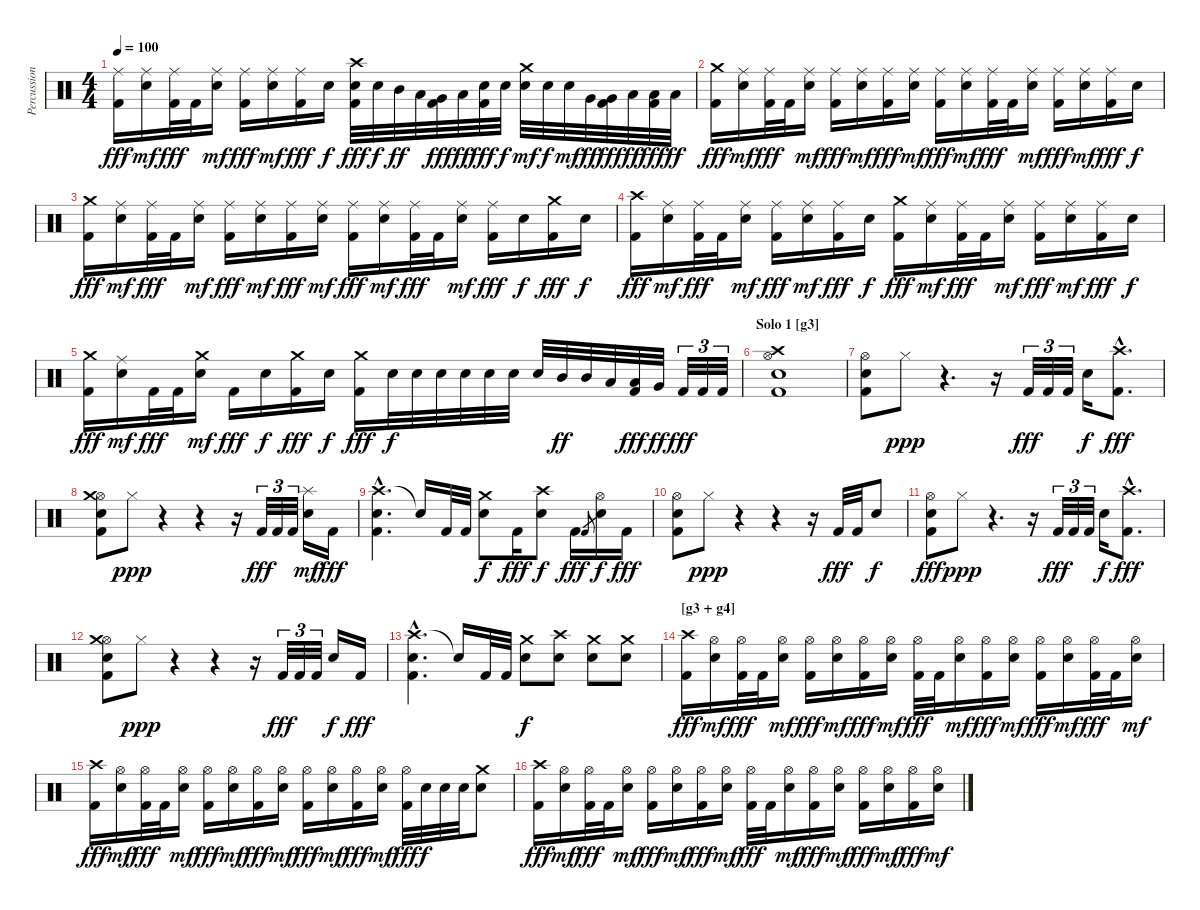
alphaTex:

\track ("Percussion" "Percussion") {instrument percussion}
\staff {score}
\articulation defaults
\ts (4 4)
\tempo 100
\clef neutral
\ks c
("Ride (middle)" "Kick (hit) 2").16{dy fff} ("Ride (middle)" "Snare (hit) 2").16{dy mf} ("Ride (middle)" "Kick (hit) 2").32{dy fff} "Kick (hit) 2".32 ("Ride (middle)" "Snare (hit) 2").16{dy mf} ("Ride (middle)" "Kick (hit) 2").16{dy fff} ("Ride (middle)" "Snare (hit) 2").16{dy mf} ("Ride (middle)" "Kick (hit) 2").16{dy fff} "Snare (hit) 2".16{dy f} ("Crash high (hit)" "Snare (hit) 2" "Kick (hit) 2").32{dy fff} "Snare (hit) 2".32{dy f} "Mid Tom (hit)".32{dy ff} "Low Tom (hit)".32 ("Very Low Tom (hit)" "Kick (hit) 2").32{dy fff} "Low Floor Tom (hit)".32{dy ff} ("Snare (hit) 2" "Kick (hit) 2").32{dy fff} "Snare (hit) 2".32{dy f} ("Crash medium (hit)" "Snare (hit) 2").32{dy mf} "Snare (hit) 2".32{dy f} "Snare (hit) 2".32{dy mf} "Very Low Tom (hit)".32{dy ff} ("Very Low Tom (hit)" "Kick (hit) 2").32{dy fff} "Low Floor Tom (hit)".32{dy ff} ("Low Floor Tom (hit)" "Kick (hit) 2").32{dy fff} "Low Floor Tom (hit)".32{dy ff} |
("Crash medium (hit)" "Kick (hit) 2").16{dy fff} ("Ride (middle)" "Snare (hit) 2").16{dy mf} ("Ride (middle)" "Kick (hit) 2").32{dy fff} "Kick (hit) 2".32 ("Ride (middle)" "Snare (hit) 2").16{dy mf} ("Ride (middle)" "Kick (hit) 2").16{dy fff} ("Ride (middle)" "Snare (hit) 2").16{dy mf} ("Ride (middle)" "Kick (hit) 2").16{dy fff} ("Ride (middle)" "Snare (hit) 2").16{dy mf} ("Ride (middle)" "Kick (hit) 2").16{dy fff} ("Ride (middle)" "Snare (hit) 2").16{dy mf} ("Ride (middle)" "Kick (hit) 2").32{dy fff} "Kick (hit) 2".32 ("Ride (middle)" "Snare (hit) 2").16{dy mf} ("Ride (middle)" "Kick (hit) 2").16{dy fff} ("Ride (middle)" "Snare (hit) 2").16{dy mf} ("Ride (middle)" "Kick (hit) 2").16{dy fff} "Snare (hit) 2".16{dy f} |
("Crash medium (hit)" "Kick (hit) 2").16{dy fff} ("Ride (middle)" "Snare (hit) 2").16{dy mf} ("Ride (middle)" "Kick (hit) 2").32{dy fff} "Kick (hit) 2".32 ("Ride (middle)" "Snare (hit) 2").16{dy mf} ("Ride (middle)" "Kick (hit) 2").16{dy fff} ("Ride (middle)" "Snare (hit) 2").16{dy mf} ("Ride (middle)" "Kick (hit) 2").16{dy fff} ("Ride (middle)" "Snare (hit) 2").16{dy mf} ("Ride (middle)" "Kick (hit) 2").16{dy fff} ("Ride (middle)" "Snare (hit) 2").16{dy mf} ("Ride (middle)" "Kick (hit) 2").32{dy fff} "Kick (hit) 2".32 ("Ride (middle)" "Snare (hit) 2").16{dy mf} ("Ride (middle)" "Kick (hit) 2").16{dy fff} "Snare (hit) 2".16{dy f} ("Crash medium (hit)" "Kick (hit) 2").16{dy fff} "Snare (hit) 2".16{dy f} |
("Crash high (hit)" "Kick (hit) 2").16{dy fff} ("Ride (middle)" "Snare (hit) 2").16{dy mf} ("Ride (middle)" "Kick (hit) 2").32{dy fff} "Kick (hit) 2".32 ("Ride (middle)" "Snare (hit) 2").16{dy mf} ("Ride (middle)" "Kick (hit) 2").16{dy fff} ("Ride (middle)" "Snare (hit) 2").16{dy mf} ("Ride (middle)" "Kick (hit) 2").16{dy fff} "Snare (hit) 2".16{dy f} ("Crash medium (hit)" "Kick (hit) 2").16{dy fff} ("Ride (middle)" "Snare (hit) 2").16{dy mf} ("Ride (middle)" "Kick (hit) 2").32{dy fff} "Kick (hit) 2".32 ("Ride (middle)" "Snare (hit) 2").16{dy mf} ("Ride (middle)" "Kick (hit) 2").16{dy fff} ("Ride (middle)" "Snare (hit) 2").16{dy mf} ("Ride (middle)" "Kick (hit) 2").16{dy fff} "Snare (hit) 2".16{dy f} |
("Crash medium (hit)" "Kick (hit) 2").16{dy fff} ("Ride (middle)" "Snare (hit) 2").16{dy mf} "Kick (hit) 2".32{dy fff} "Kick (hit) 2".32 ("Crash medium (hit)" "Snare (hit) 2").16{dy mf} "Kick (hit) 2".16{dy fff} "Snare (hit) 2".16{dy f} ("Crash medium (hit)" "Kick (hit) 2").16{dy fff} "Snare (hit) 2".16{dy f} ("Crash medium (hit)" "Kick (hit) 2").16{dy fff} "Snare (hit) 2".32{dy f} "Snare (hit) 2".32 "Snare (hit) 2".32 "Snare (hit) 2".32 "Snare (hit) 2".32 "Snare (hit) 2".32 "Snare (hit) 2".32 "Mid Tom (hit)".32{dy ff} "Mid Tom (hit)".32 "Low Tom (hit)".32 ("Low Tom (hit)" "Kick (hit) 2").32{dy fff} "Very Low Tom (hit)".32{dy ff} "Kick (hit) 2".32{tu (3 2) dy fff} "Kick (hit) 2".32{tu (3 2)} "Kick (hit) 2".32{tu (3 2)} |
\section ("" "Solo 1 [g3]")
("Hi-Hat (open)" "Crash high (hit)" "Snare (hit) 2" "Kick (hit) 2").1 |
("Hi-Hat (open)" "Snare (hit) 2" "Kick (hit) 2").8 "Hi-Hat (closed)".8{dy ppp} r.4{d} r.16 "Kick (hit) 2".32{tu (3 2) dy fff} "Kick (hit) 2".32{tu (3 2)} "Kick (hit) 2".32{tu (3 2)} "Snare (hit) 2".16{dy f} ("Crash high (hit)"{hac} "Kick (hit) 2"{hac}).8{d dy fff} |
("Hi-Hat (open)" "Crash medium (hit)" "Snare (hit) 2" "Kick (hit) 2").8 "Hi-Hat (closed)".8{dy ppp} r.4 r.4 r.16 "Kick (hit) 2".32{tu (3 2) dy fff} "Kick (hit) 2".32{tu (3 2)} "Kick (hit) 2".32{tu (3 2)} ("Splash (hit)" "Snare (hit) 2").16{dy mf} "Kick (hit) 2".16{dy fff} |
("Crash high (hit)"{hac} "Snare (hit) 2"{hac} "Kick (hit) 2"{hac}).4{d} "Snare (hit)"{t}.16 "Kick (hit) 2".32 "Kick (hit) 2".32 ("Crash medium (hit)" "Snare (hit) 2").8{dy f} "Kick (hit) 2".16{dy fff} ("Crash high (hit)" "Snare (hit) 2").8{dy f} "Kick (hit) 2".16{dy fff} "Kick (hit) 2".8{gr} ("Hi-Hat (open)" "Snare (hit) 2").16{dy f} "Kick (hit) 2".16{dy fff} |
("Hi-Hat (open)" "Snare (hit) 2" "Kick (hit) 2").8 "Hi-Hat (closed)".8{dy ppp} r.4 r.4 r.16 "Kick (hit) 2".32{dy fff} "Kick (hit) 2".32 "Snare (hit) 2".8{dy f} |
("Hi-Hat (open)" "Snare (hit) 2" "Kick (hit) 2").8{dy fff} "Hi-Hat (closed)".8{dy ppp} r.4{d} r.16 "Kick (hit) 2".32{tu (3 2) dy fff} "Kick (hit) 2".32{tu (3 2)} "Kick (hit) 2".32{tu (3 2)} "Snare (hit) 2".16{dy f} ("Crash high (hit)"{hac} "Kick (hit) 2"{hac}).8{d dy fff} |
("Hi-Hat (open)" "Crash medium (hit)" "Snare (hit) 2" "Kick (hit) 2").8 "Hi-Hat (closed)".8{dy ppp} r.4 r.4 r.16 "Kick (hit) 2".32{tu (3 2) dy fff} "Kick (hit) 2".32{tu (3 2)} "Kick (hit) 2".32{tu (3 2)} "Snare (hit) 2".16{dy f} "Kick (hit) 2".16{dy fff} |
("Crash high (hit)"{hac} "Snare (hit) 2"{hac} "Kick (hit) 2"{hac}).4{d} "Snare (hit)"{t}.16 "Kick (hit) 2".32 "Kick (hit) 2".32 ("Crash medium (hit)" "Snare (hit) 2").8{dy f} ("Crash high (hit)" "Snare (hit) 2").8 ("Crash medium (hit)" "Snare (hit) 2").8 ("Crash medium (hit)" "Snare (hit) 2").8 |
\section ("" "[g3 + g4]")
("Crash high (hit)" "Kick (hit) 2").16{dy fff} ("Hi-Hat (open)" "Snare (hit) 2").16{dy mf} ("Hi-Hat (open)" "Kick (hit) 2").32{dy fff} "Kick (hit) 2".32 ("Hi-Hat (open)" "Snare (hit) 2").16{dy mf} ("Hi-Hat (open)" "Kick (hit) 2").16{dy fff} ("Hi-Hat (open)" "Snare (hit) 2").16{dy mf} ("Hi-Hat (open)" "Kick (hit) 2").16{dy fff} ("Hi-Hat (open)" "Snare (hit) 2").16{dy mf} ("Hi-Hat (open)" "Kick (hit) 2").32{dy fff} "Kick (hit) 2".32 ("Hi-Hat (open)" "Snare (hit) 2").16{dy mf} ("Hi-Hat (open)" "Kick (hit) 2").16{dy fff} ("Hi-Hat (open)" "Snare (hit) 2").16{dy mf} ("Hi-Hat (open)" "Kick (hit) 2").16{dy fff} ("Hi-Hat (open)" "Snare (hit) 2").16{dy mf} ("Hi-Hat (open)" "Kick (hit) 2").32{dy fff} "Kick (hit) 2".32 ("Hi-Hat (open)" "Snare (hit) 2").16{dy mf} |
("Crash high (hit)" "Kick (hit) 2").16{dy fff} ("Hi-Hat (open)" "Snare (hit) 2").16{dy mf} ("Hi-Hat (open)" "Kick (hit) 2").32{dy fff} "Kick (hit) 2".32 ("Hi-Hat (open)" "Snare (hit) 2").16{dy mf} ("Hi-Hat (open)" "Kick (hit) 2").16{dy fff} ("Hi-Hat (open)" "Snare (hit) 2").16{dy mf} ("Hi-Hat (open)" "Kick (hit) 2").16{dy fff} ("Hi-Hat (open)" "Snare (hit) 2").16{dy mf} ("Hi-Hat (open)" "Kick (hit) 2").16{dy fff} ("Hi-Hat (open)" "Snare (hit) 2").16{dy mf} ("Hi-Hat (open)" "Kick (hit) 2").16{dy fff} ("Hi-Hat (open)" "Snare (hit) 2").16{dy mf} ("Hi-Hat (open)" "Kick (hit) 2").32{dy fff} "Snare (hit) 2".32{dy f} "Snare (hit) 2".32 "Snare (hit) 2".32 ("Crash medium (hit)" "Snare (hit) 2").8 |
("Crash high (hit)" "Kick (hit) 2").16{dy fff} ("Hi-Hat (open)" "Snare (hit) 2").16{dy mf} ("Hi-Hat (open)" "Kick (hit) 2").32{dy fff} "Kick (hit) 2".32 ("Hi-Hat (open)" "Snare (hit) 2").16{dy mf} ("Hi-Hat (open)" "Kick (hit) 2").16{dy fff} ("Hi-Hat (open)" "Snare (hit) 2").16{dy mf} ("Hi-Hat (open)" "Kick (hit) 2").16{dy fff} ("Hi-Hat (open)" "Snare (hit) 2").16{dy mf} ("Hi-Hat (open)" "Kick (hit) 2").32{dy fff} "Kick (hit) 2".32 ("Hi-Hat (open)" "Snare (hit) 2").16{dy mf} ("Hi-Hat (open)" "Kick (hit) 2").16{dy fff} ("Hi-Hat (open)" "Snare (hit) 2").16{dy mf} ("Hi-Hat (open)" "Kick (hit) 2").16{dy fff} ("Hi-Hat (open)" "Snare (hit) 2").16{dy mf} ("Hi-Hat (open)" "Kick (hit) 2").16{dy fff} ("Hi-Hat (open)" "Snare (hit) 2").16{dy mf}
